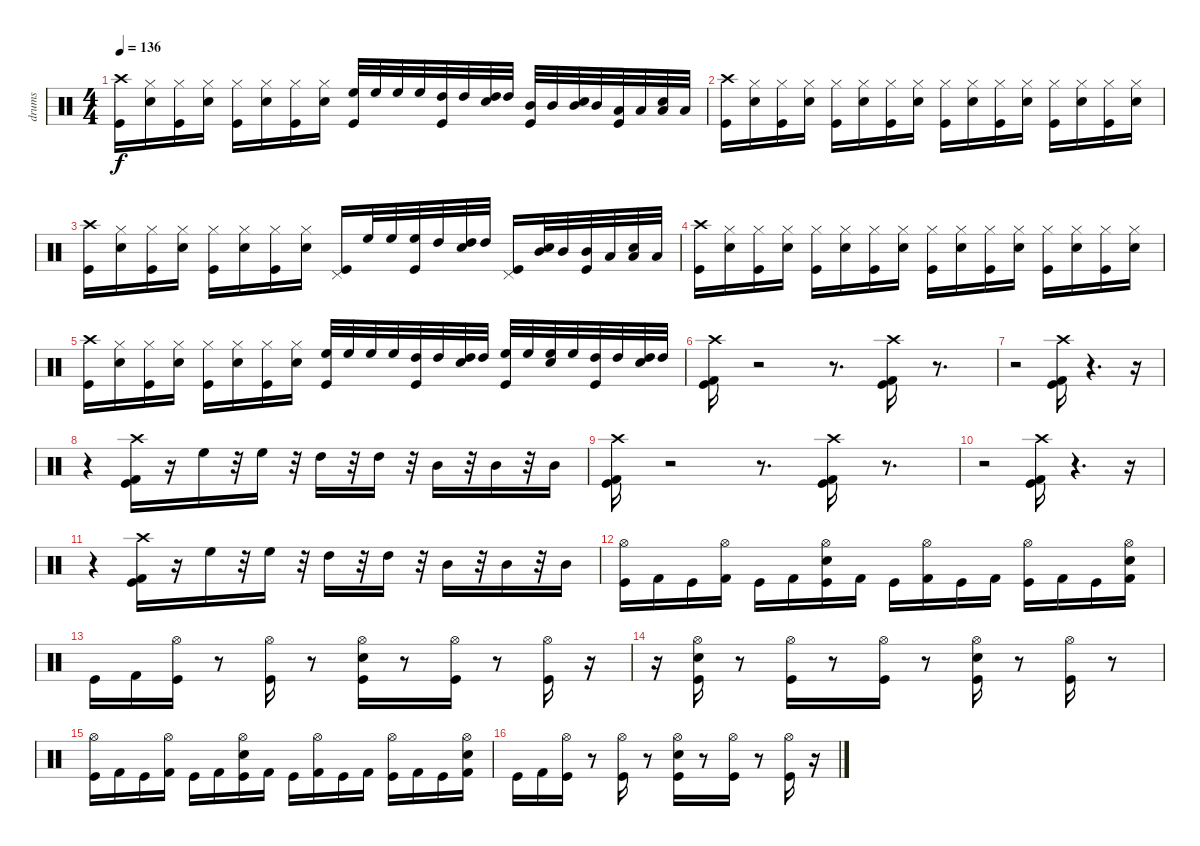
\track ("drums" "drums") {instrument percussion}
\staff {score}
\articulation defaults
\ts (4 4)
\tempo 136
\clef neutral
\ks c
("Crash high (hit)" "Kick (hit)").16{dy f} ("Hi-Hat (closed)" "Snare (hit) 2").16 ("Hi-Hat (closed)" "Kick (hit)").16 ("Hi-Hat (closed)" "Snare (hit) 2").16 ("Hi-Hat (closed)" "Kick (hit)").16 ("Hi-Hat (closed)" "Snare (hit) 2").16 ("Hi-Hat (closed)" "Kick (hit)").16 ("Hi-Hat (closed)" "Snare (hit) 2").16 ("High Floor Tom (hit)" "Kick (hit)").32 "High Floor Tom (hit)".32 "High Floor Tom (hit)".32 "High Floor Tom (hit)".32 ("High Tom (hit)" "Kick (hit)").32 "High Tom (hit)".32 ("High Tom (hit)" "Snare (hit) 2").32 "High Tom (hit)".32 ("Mid Tom (hit)" "Kick (hit)").32 "Mid Tom (hit)".32 ("Mid Tom (hit)" "Snare (hit) 2").32 "Mid Tom (hit)".32 ("Low Tom (hit)" "Kick (hit)").32 "Low Tom (hit)".32 ("Low Tom (hit)" "Snare (hit) 2").32 "Low Tom (hit)".32 |
("Crash high (hit)" "Kick (hit)").16 ("Hi-Hat (closed)" "Snare (hit) 2").16 ("Hi-Hat (closed)" "Kick (hit)").16 ("Hi-Hat (closed)" "Snare (hit) 2").16 ("Hi-Hat (closed)" "Kick (hit)").16 ("Hi-Hat (closed)" "Snare (hit) 2").16 ("Hi-Hat (closed)" "Kick (hit)").16 ("Hi-Hat (closed)" "Snare (hit) 2").16 ("Hi-Hat (closed)" "Kick (hit)").16 ("Hi-Hat (closed)" "Snare (hit) 2").16 ("Hi-Hat (closed)" "Kick (hit)").16 ("Hi-Hat (closed)" "Snare (hit) 2").16 ("Hi-Hat (closed)" "Kick (hit)").16 ("Hi-Hat (closed)" "Snare (hit) 2").16 ("Hi-Hat (closed)" "Kick (hit)").16 ("Hi-Hat (closed)" "Snare (hit) 2").16 |
("Crash high (hit)" "Kick (hit)").16 ("Hi-Hat (closed)" "Snare (hit) 2").16 ("Hi-Hat (closed)" "Kick (hit)").16 ("Hi-Hat (closed)" "Snare (hit) 2").16 ("Hi-Hat (closed)" "Kick (hit)").16 ("Hi-Hat (closed)" "Snare (hit) 2").16 ("Hi-Hat (closed)" "Kick (hit)").16 ("Hi-Hat (closed)" "Snare (hit) 2").16 ("Pedal Hi-Hat (hit)" "Kick (hit)").16 "High Floor Tom (hit)".32 "High Floor Tom (hit)".32 ("High Floor Tom (hit)" "Kick (hit)").32 "High Tom (hit)".32 ("High Tom (hit)" "Snare (hit) 2").32 "High Tom (hit)".32 ("Pedal Hi-Hat (hit)" "Kick (hit)").16 ("Mid Tom (hit)" "Snare (hit) 2").32 "Mid Tom (hit)".32 ("Mid Tom (hit)" "Kick (hit)").32 "Low Tom (hit)".32 ("Low Tom (hit)" "Snare (hit) 2").32 "Low Tom (hit)".32 |
("Crash high (hit)" "Kick (hit)").16 ("Hi-Hat (closed)" "Snare (hit) 2").16 ("Hi-Hat (closed)" "Kick (hit)").16 ("Hi-Hat (closed)" "Snare (hit) 2").16 ("Hi-Hat (closed)" "Kick (hit)").16 ("Hi-Hat (closed)" "Snare (hit) 2").16 ("Hi-Hat (closed)" "Kick (hit)").16 ("Hi-Hat (closed)" "Snare (hit) 2").16 ("Hi-Hat (closed)" "Kick (hit)").16 ("Hi-Hat (closed)" "Snare (hit) 2").16 ("Hi-Hat (closed)" "Kick (hit)").16 ("Hi-Hat (closed)" "Snare (hit) 2").16 ("Hi-Hat (closed)" "Kick (hit)").16 ("Hi-Hat (closed)" "Snare (hit) 2").16 ("Hi-Hat (closed)" "Kick (hit)").16 ("Hi-Hat (closed)" "Snare (hit) 2").16 |
("Crash high (hit)" "Kick (hit)").16 ("Hi-Hat (closed)" "Snare (hit) 2").16 ("Hi-Hat (closed)" "Kick (hit)").16 ("Hi-Hat (closed)" "Snare (hit) 2").16 ("Hi-Hat (closed)" "Kick (hit)").16 ("Hi-Hat (closed)" "Snare (hit) 2").16 ("Hi-Hat (closed)" "Kick (hit)").16 ("Hi-Hat (closed)" "Snare (hit) 2").16 ("High Floor Tom (hit)" "Kick (hit)").32 "High Floor Tom (hit)".32 "High Floor Tom (hit)".32 "High Floor Tom (hit)".32 ("High Tom (hit)" "Kick (hit)").32 "High Tom (hit)".32 ("High Tom (hit)" "Snare (hit) 2").32 "High Tom (hit)".32 ("High Floor Tom (hit)" "Kick (hit)").32 "High Floor Tom (hit)".32 ("High Floor Tom (hit)" "Snare (hit) 2").32 "High Floor Tom (hit)".32 ("High Tom (hit)" "Kick (hit)").32 "High Tom (hit)".32 ("High Tom (hit)" "Snare (hit) 2").32 "High Tom (hit)".32 |
("Crash high (hit)" "Kick (hit) 2" "Kick (hit)").16 r.2 r.8{d} ("Crash high (hit)" "Kick (hit) 2" "Kick (hit)").16 r.8{d} |
r.2 ("Crash high (hit)" "Kick (hit) 2" "Kick (hit)").16 r.4{d} r.16 |
r.4 ("Crash high (hit)" "Kick (hit) 2" "Kick (hit)").16 r.16 "High Floor Tom (hit)".16 r.32 "High Floor Tom (hit)".16 r.32 "High Tom (hit)".16 r.32 "High Tom (hit)".16 r.32 "Mid Tom (hit)".16 r.32 "Mid Tom (hit)".16 r.32 "Mid Tom (hit)".16 |
("Crash high (hit)" "Kick (hit) 2" "Kick (hit)").16 r.2 r.8{d} ("Crash high (hit)" "Kick (hit) 2" "Kick (hit)").16 r.8{d} |
r.2 ("Crash high (hit)" "Kick (hit) 2" "Kick (hit)").16 r.4{d} r.16 |
r.4 ("Crash high (hit)" "Kick (hit) 2" "Kick (hit)").16 r.16 "High Floor Tom (hit)".16 r.32 "High Floor Tom (hit)".16 r.32 "High Tom (hit)".16 r.32 "High Tom (hit)".16 r.32 "Mid Tom (hit)".16 r.32 "Mid Tom (hit)".16 r.32 "Mid Tom (hit)".16 |
("Kick (hit)" "Hi-Hat (open)").16 "Kick (hit) 2".16 "Kick (hit)".16 ("Hi-Hat (open)" "Kick (hit) 2").16 "Kick (hit)".16 "Kick (hit) 2".16 ("Snare (hit) 2" "Kick (hit)" "Hi-Hat (open)").16 "Kick (hit) 2".16 "Kick (hit)".16 ("Hi-Hat (open)" "Kick (hit) 2").16 "Kick (hit)".16 "Kick (hit) 2".16 ("Kick (hit)" "Hi-Hat (open)").16 "Kick (hit) 2".16 "Kick (hit)".16 ("Kick (hit) 2" "Snare (hit) 2" "Hi-Hat (open)").16 |
"Kick (hit)".16 "Kick (hit) 2".16 ("Kick (hit)" "Hi-Hat (open)").16 r.8 ("Kick (hit)" "Hi-Hat (open)").16 r.8 ("Kick (hit)" "Snare (hit) 2" "Hi-Hat (open)").16 r.8 ("Kick (hit)" "Hi-Hat (open)").16 r.8 ("Hi-Hat (open)" "Kick (hit)").16 r.16 |
r.16 ("Hi-Hat (open)" "Kick (hit)" "Snare (hit) 2").16 r.8 ("Hi-Hat (open)" "Kick (hit)").16 r.8 ("Hi-Hat (open)" "Kick (hit)").16 r.8 ("Snare (hit) 2" "Hi-Hat (open)" "Kick (hit)").16 r.8 ("Hi-Hat (open)" "Kick (hit)").16 r.8 |
("Kick (hit)" "Hi-Hat (open)").16 "Kick (hit) 2".16 "Kick (hit)".16 ("Hi-Hat (open)" "Kick (hit) 2").16 "Kick (hit)".16 "Kick (hit) 2".16 ("Snare (hit) 2" "Kick (hit)" "Hi-Hat (open)").16 "Kick (hit) 2".16 "Kick (hit)".16 ("Hi-Hat (open)" "Kick (hit) 2").16 "Kick (hit)".16 "Kick (hit) 2".16 ("Kick (hit)" "Hi-Hat (open)").16 "Kick (hit) 2".16 "Kick (hit)".16 ("Kick (hit) 2" "Snare (hit) 2" "Hi-Hat (open)").16 |
"Kick (hit)".16 "Kick (hit) 2".16 ("Kick (hit)" "Hi-Hat (open)").16 r.8 ("Kick (hit)" "Hi-Hat (open)").16 r.8 ("Kick (hit)" "Snare (hit) 2" "Hi-Hat (open)").16 r.8 ("Kick (hit)" "Hi-Hat (open)").16 r.8 ("Hi-Hat (open)" "Kick (hit)").16 r.16
